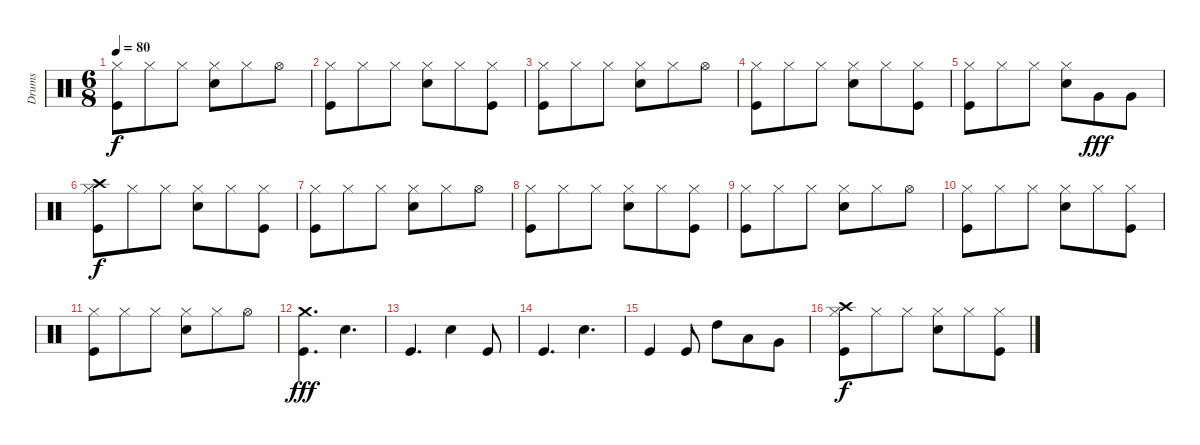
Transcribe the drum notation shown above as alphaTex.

\track ("Drums" "Drums") {instrument percussion}
\staff {score}
\articulation defaults
\ts (6 8)
\tempo 80
\clef neutral
\ks c
("Hi-Hat (closed)" "Kick (hit)").8{dy f} "Hi-Hat (closed)".8 "Hi-Hat (closed)".8 ("Hi-Hat (closed)" "Electric Snare (hit)").8 "Hi-Hat (closed)".8 "Hi-Hat (open)".8 |
("Hi-Hat (closed)" "Kick (hit)").8 "Hi-Hat (closed)".8 "Hi-Hat (closed)".8 ("Hi-Hat (closed)" "Electric Snare (hit)").8 "Hi-Hat (closed)".8 ("Hi-Hat (closed)" "Kick (hit)").8 |
("Hi-Hat (closed)" "Kick (hit)").8 "Hi-Hat (closed)".8 "Hi-Hat (closed)".8 ("Hi-Hat (closed)" "Electric Snare (hit)").8 "Hi-Hat (closed)".8 "Hi-Hat (open)".8 |
("Hi-Hat (closed)" "Kick (hit)").8 "Hi-Hat (closed)".8 "Hi-Hat (closed)".8 ("Hi-Hat (closed)" "Electric Snare (hit)").8 "Hi-Hat (closed)".8 ("Hi-Hat (closed)" "Kick (hit)").8 |
("Hi-Hat (closed)" "Kick (hit)").8 "Hi-Hat (closed)".8 "Hi-Hat (closed)".8 ("Hi-Hat (closed)" "Electric Snare (hit)").8 "Very Low Tom (hit)".8{dy fff} "Very Low Tom (hit)".8 |
("Hi-Hat (closed)" "Kick (hit)" "Crash high (hit)").8{dy f} "Hi-Hat (closed)".8 "Hi-Hat (closed)".8 ("Hi-Hat (closed)" "Electric Snare (hit)").8 "Hi-Hat (closed)".8 ("Hi-Hat (closed)" "Kick (hit)").8 |
("Hi-Hat (closed)" "Kick (hit)").8 "Hi-Hat (closed)".8 "Hi-Hat (closed)".8 ("Hi-Hat (closed)" "Electric Snare (hit)").8 "Hi-Hat (closed)".8 "Hi-Hat (open)".8 |
("Hi-Hat (closed)" "Kick (hit)").8 "Hi-Hat (closed)".8 "Hi-Hat (closed)".8 ("Hi-Hat (closed)" "Electric Snare (hit)").8 "Hi-Hat (closed)".8 ("Hi-Hat (closed)" "Kick (hit)").8 |
("Hi-Hat (closed)" "Kick (hit)").8 "Hi-Hat (closed)".8 "Hi-Hat (closed)".8 ("Hi-Hat (closed)" "Electric Snare (hit)").8 "Hi-Hat (closed)".8 "Hi-Hat (open)".8 |
("Hi-Hat (closed)" "Kick (hit)").8 "Hi-Hat (closed)".8 "Hi-Hat (closed)".8 ("Hi-Hat (closed)" "Electric Snare (hit)").8 "Hi-Hat (closed)".8 ("Hi-Hat (closed)" "Kick (hit)").8 |
("Hi-Hat (closed)" "Kick (hit)").8 "Hi-Hat (closed)".8 "Hi-Hat (closed)".8 ("Hi-Hat (closed)" "Electric Snare (hit)").8 "Hi-Hat (closed)".8 "Hi-Hat (open)".8 |
("Crash medium (hit)" "Kick (hit)").4{d dy fff} "Electric Snare (hit)".4{d} |
"Kick (hit)".4{d} "Electric Snare (hit)".4 "Kick (hit)".8 |
"Kick (hit)".4{d} "Electric Snare (hit)".4{d} |
"Kick (hit)".4 "Kick (hit)".8 "High Tom (hit)".8 "Low Tom (hit)".8 "Very Low Tom (hit)".8 |
("Hi-Hat (closed)" "Kick (hit)" "Crash high (hit)").8{dy f} "Hi-Hat (closed)".8 "Hi-Hat (closed)".8 ("Hi-Hat (closed)" "Electric Snare (hit)").8 "Hi-Hat (closed)".8 ("Hi-Hat (closed)" "Kick (hit)").8
